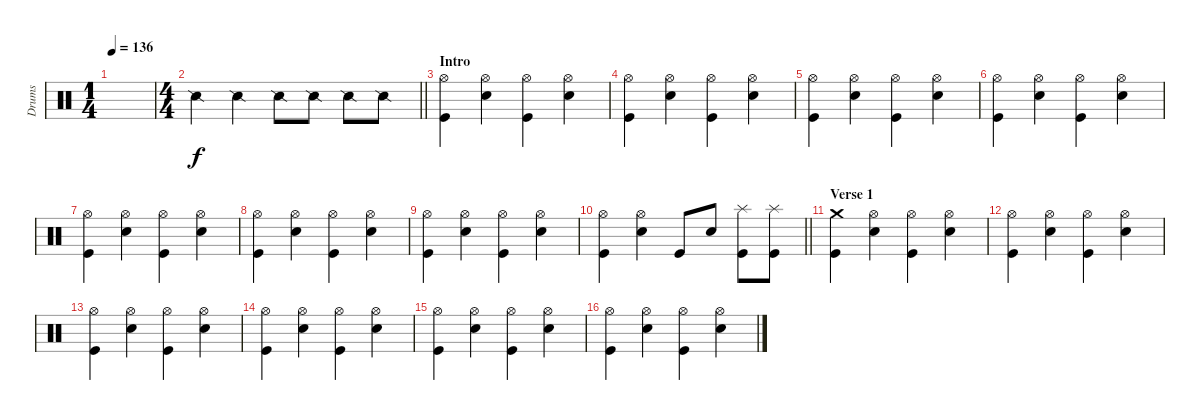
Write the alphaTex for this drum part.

\track ("Drums" "Drums") {instrument percussion}
\staff {score}
\articulation defaults
\ts (1 4)
\tempo 136
\clef neutral
\ks c
|
\ts (4 4)
\barLineRight lightlight "Snare (side stick) 2".4 "Snare (side stick) 2".4 "Snare (side stick) 2".8 "Snare (side stick) 2".8 "Snare (side stick) 2".8 "Snare (side stick) 2".8
|
\section ("" "Intro")
("Kick (hit)" "Hi-Hat (open)").4 ("Electric Snare (hit)" "Hi-Hat (open)").4 ("Kick (hit)" "Hi-Hat (open)").4 ("Electric Snare (hit)" "Hi-Hat (open)").4 |
("Kick (hit)" "Hi-Hat (open)").4 ("Electric Snare (hit)" "Hi-Hat (open)").4 ("Kick (hit)" "Hi-Hat (open)").4 ("Electric Snare (hit)" "Hi-Hat (open)").4 |
("Kick (hit)" "Hi-Hat (open)").4 ("Electric Snare (hit)" "Hi-Hat (open)").4 ("Kick (hit)" "Hi-Hat (open)").4 ("Electric Snare (hit)" "Hi-Hat (open)").4 |
("Kick (hit)" "Hi-Hat (open)").4 ("Electric Snare (hit)" "Hi-Hat (open)").4 ("Kick (hit)" "Hi-Hat (open)").4 ("Electric Snare (hit)" "Hi-Hat (open)").4 |
("Kick (hit)" "Hi-Hat (open)").4 ("Electric Snare (hit)" "Hi-Hat (open)").4 ("Kick (hit)" "Hi-Hat (open)").4 ("Electric Snare (hit)" "Hi-Hat (open)").4 |
("Kick (hit)" "Hi-Hat (open)").4 ("Electric Snare (hit)" "Hi-Hat (open)").4 ("Kick (hit)" "Hi-Hat (open)").4 ("Electric Snare (hit)" "Hi-Hat (open)").4 |
("Kick (hit)" "Hi-Hat (open)").4 ("Electric Snare (hit)" "Hi-Hat (open)").4 ("Kick (hit)" "Hi-Hat (open)").4 ("Electric Snare (hit)" "Hi-Hat (open)").4 |
\barLineRight lightlight
("Kick (hit)" "Hi-Hat (open)").4 ("Electric Snare (hit)" "Hi-Hat (open)").4 "Kick (hit)".8 "Electric Snare (hit)".8 ("Kick (hit)" "Splash (hit)").8 ("Kick (hit)" "Splash (hit)").8 |
\section ("" "Verse 1")
("Kick (hit)" "Crash medium (hit)").4 ("Electric Snare (hit)" "Hi-Hat (open)").4 ("Kick (hit)" "Hi-Hat (open)").4 ("Electric Snare (hit)" "Hi-Hat (open)").4 |
("Kick (hit)" "Hi-Hat (open)").4 ("Electric Snare (hit)" "Hi-Hat (open)").4 ("Kick (hit)" "Hi-Hat (open)").4 ("Electric Snare (hit)" "Hi-Hat (open)").4 |
("Kick (hit)" "Hi-Hat (open)").4 ("Electric Snare (hit)" "Hi-Hat (open)").4 ("Kick (hit)" "Hi-Hat (open)").4 ("Electric Snare (hit)" "Hi-Hat (open)").4 |
("Kick (hit)" "Hi-Hat (open)").4 ("Electric Snare (hit)" "Hi-Hat (open)").4 ("Kick (hit)" "Hi-Hat (open)").4 ("Electric Snare (hit)" "Hi-Hat (open)").4 |
("Kick (hit)" "Hi-Hat (open)").4 ("Electric Snare (hit)" "Hi-Hat (open)").4 ("Kick (hit)" "Hi-Hat (open)").4 ("Electric Snare (hit)" "Hi-Hat (open)").4 |
("Kick (hit)" "Hi-Hat (open)").4 ("Electric Snare (hit)" "Hi-Hat (open)").4 ("Kick (hit)" "Hi-Hat (open)").4 ("Electric Snare (hit)" "Hi-Hat (open)").4
